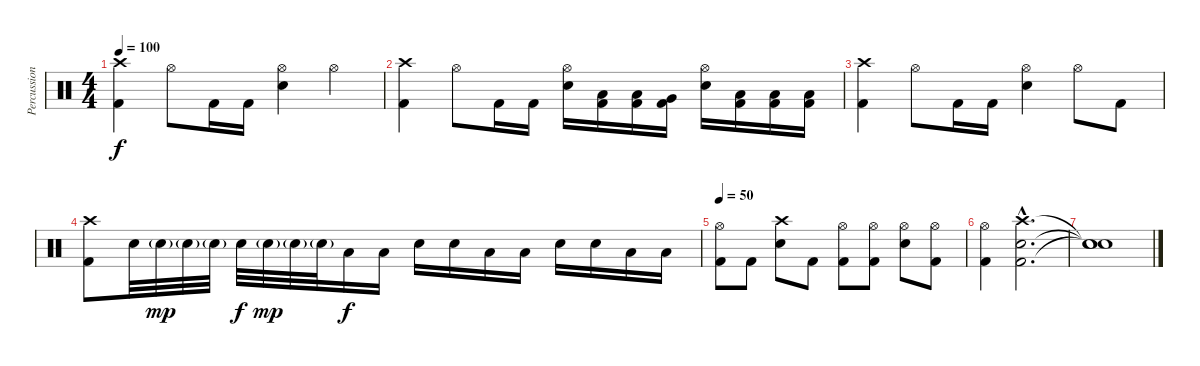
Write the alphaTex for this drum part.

\track ("Percussion" "Percussion") {instrument percussion}
\staff {score}
\articulation defaults
\ts (4 4)
\tempo 100
\clef neutral
\ks c
("Crash high (hit)" "Kick (hit) 2").4{dy f} "Hi-Hat (open)".8 "Kick (hit) 2".16 "Kick (hit) 2".16 ("Hi-Hat (open)" "Electric Snare (hit)").4 "Hi-Hat (open)".4 |
("Crash high (hit)" "Kick (hit) 2").4 "Hi-Hat (open)".8 "Kick (hit) 2".16 "Kick (hit) 2".16 ("Hi-Hat (open)" "Electric Snare (hit)").16 ("Low Tom (hit)" "Kick (hit) 2").16 ("Low Tom (hit)" "Kick (hit) 2").16 ("Very Low Tom (hit)" "Kick (hit) 2").16 ("Hi-Hat (open)" "Electric Snare (hit)").16 ("Low Tom (hit)" "Kick (hit) 2").16 ("Low Tom (hit)" "Kick (hit) 2").16 ("Low Tom (hit)" "Kick (hit) 2").16 |
("Crash high (hit)" "Kick (hit) 2").4 "Hi-Hat (open)".8 "Kick (hit) 2".16 "Kick (hit) 2".16 ("Hi-Hat (open)" "Electric Snare (hit)").4 "Hi-Hat (open)".8 "Kick (hit) 2".8 |
("Crash high (hit)" "Kick (hit) 2").8 "Electric Snare (hit)".32 "Electric Snare (hit)"{g}.32{dy mp} "Electric Snare (hit)"{g}.32 "Electric Snare (hit)"{g}.32 "Electric Snare (hit)".32{dy f} "Electric Snare (hit)"{g}.32{dy mp} "Electric Snare (hit)"{g}.32 "Electric Snare (hit)"{g}.32 "Low Tom (hit)".16{dy f} "Low Tom (hit)".16 "Electric Snare (hit)".16 "Electric Snare (hit)".16 "Low Tom (hit)".16 "Low Tom (hit)".16 "Electric Snare (hit)".16 "Electric Snare (hit)".16 "Low Tom (hit)".16 "Low Tom (hit)".16 |
\tempo 50
("Hi-Hat (open)" "Kick (hit) 2").8 "Kick (hit) 2".8 ("Crash high (hit)" "Electric Snare (hit)").8 "Kick (hit) 2".8 ("Hi-Hat (open)" "Kick (hit) 2").8 ("Hi-Hat (open)" "Kick (hit) 2").8 ("Hi-Hat (open)" "Electric Snare (hit)").8 ("Hi-Hat (open)" "Kick (hit) 2").8 |
("Hi-Hat (open)" "Kick (hit) 2").4 ("Crash high (hit)"{hac} "Kick (hit) 2"{hac} "Electric Snare (hit)"{hac}).2{d} |
("Snare (hit)"{t} "Snare (hit)"{t} "Snare (hit)"{t}).1
